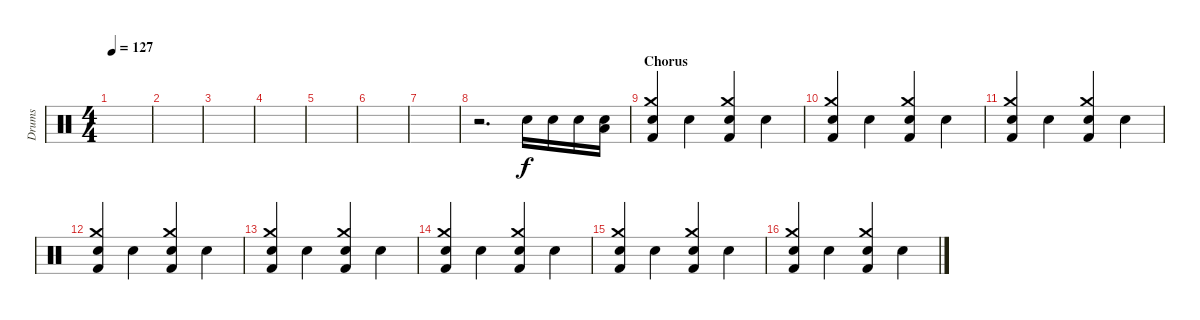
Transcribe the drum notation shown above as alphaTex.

\track ("Drums" "Drums") {instrument percussion}
\staff {score}
\articulation defaults
\ts (4 4)
\tempo 127
\clef neutral
\ks c
|
|
|
|
|
|
|
r.2{d} "Snare (hit) 2".16 "Snare (hit) 2".16 "Snare (hit) 2".16 ("Low Floor Tom (hit)" "Snare (hit) 2").16 |
\section ("" "Chorus")
("Crash medium (hit)" "Snare (hit) 2" "Kick (hit) 2").4 "Snare (hit) 2".4 ("Crash medium (hit)" "Snare (hit) 2" "Kick (hit) 2").4 "Snare (hit) 2".4 |
("Crash medium (hit)" "Snare (hit) 2" "Kick (hit) 2").4 "Snare (hit) 2".4 ("Crash medium (hit)" "Snare (hit) 2" "Kick (hit) 2").4 "Snare (hit) 2".4 |
("Crash medium (hit)" "Snare (hit) 2" "Kick (hit) 2").4 "Snare (hit) 2".4 ("Crash medium (hit)" "Snare (hit) 2" "Kick (hit) 2").4 "Snare (hit) 2".4 |
("Crash medium (hit)" "Snare (hit) 2" "Kick (hit) 2").4 "Snare (hit) 2".4 ("Crash medium (hit)" "Snare (hit) 2" "Kick (hit) 2").4 "Snare (hit) 2".4 |
("Crash medium (hit)" "Snare (hit) 2" "Kick (hit) 2").4 "Snare (hit) 2".4 ("Crash medium (hit)" "Snare (hit) 2" "Kick (hit) 2").4 "Snare (hit) 2".4 |
("Crash medium (hit)" "Snare (hit) 2" "Kick (hit) 2").4 "Snare (hit) 2".4 ("Crash medium (hit)" "Snare (hit) 2" "Kick (hit) 2").4 "Snare (hit) 2".4 |
("Crash medium (hit)" "Snare (hit) 2" "Kick (hit) 2").4 "Snare (hit) 2".4 ("Crash medium (hit)" "Snare (hit) 2" "Kick (hit) 2").4 "Snare (hit) 2".4 |
("Crash medium (hit)" "Snare (hit) 2" "Kick (hit) 2").4 "Snare (hit) 2".4 ("Crash medium (hit)" "Snare (hit) 2" "Kick (hit) 2").4 "Snare (hit) 2".4
